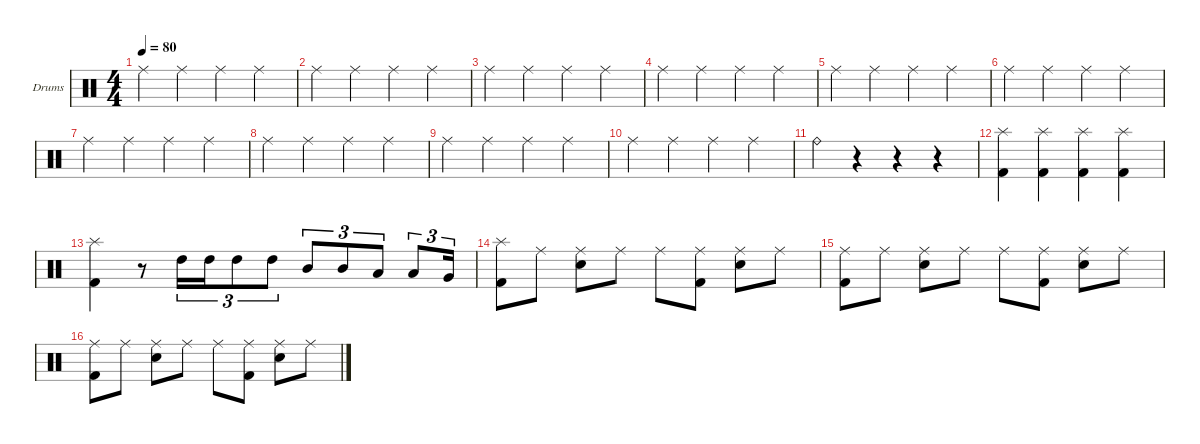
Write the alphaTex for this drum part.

\hideDynamics
\bracketExtendMode nobrackets
\firstSystemTrackNameOrientation horizontal
\otherSystemsTrackNameOrientation horizontal
\track ("Drumkit" "Drums") {instrument percussion}
\staff {score}
\articulation defaults
\ts (4 4)
\beaming (8 2 2 2 2)
\tempo 80
\clef neutral
\ks c "Ride (middle)".4{dy f} "Ride (middle)".4 "Ride (middle)".4 "Ride (middle)".4
|
"Ride (middle)".4 "Ride (middle)".4 "Ride (middle)".4 "Ride (middle)".4 |
"Ride (middle)".4 "Ride (middle)".4 "Ride (middle)".4 "Ride (middle)".4 |
"Ride (middle)".4 "Ride (middle)".4 "Ride (middle)".4 "Ride (middle)".4 |
"Ride (middle)".4 "Ride (middle)".4 "Ride (middle)".4 "Ride (middle)".4 |
"Ride (middle)".4 "Ride (middle)".4 "Ride (middle)".4 "Ride (middle)".4 |
"Ride (middle)".4 "Ride (middle)".4 "Ride (middle)".4 "Ride (middle)".4 |
"Ride (middle)".4 "Ride (middle)".4 "Ride (middle)".4 "Ride (middle)".4 |
"Ride (middle)".4 "Ride (middle)".4 "Ride (middle)".4 "Ride (middle)".4 |
"Ride (middle)".4 "Ride (middle)".4 "Ride (middle)".4 "Ride (middle)".4 |
"Ride (bell)".4 r.4 r.4 r.4 |
("Splash (hit)" "Kick (hit) 2").4 ("Splash (hit)" "Kick (hit) 2").4 ("Splash (hit)" "Kick (hit) 2").4 ("Splash (hit)" "Kick (hit) 2").4 |
("Splash (hit)" "Kick (hit) 2").4 r.8 "High Tom (hit)".16{tu (3 2)} "High Tom (hit)".16{tu (3 2)} "High Tom (hit)".8{tu (3 2)} "High Tom (hit)".8{tu (3 2)} "Mid Tom (hit)".8{tu (3 2)} "Mid Tom (hit)".8{tu (3 2)} "Low Tom (hit)".8{tu (3 2)} "Low Tom (hit)".8{tu (3 2)} "Very Low Tom (hit)".16{tu (3 2)} |
("Splash (hit)" "Kick (hit) 2").8 "Ride (middle)".8 ("Ride (middle)" "Snare (hit) 2").8 "Ride (middle)".8 "Ride (middle)".8 ("Ride (middle)" "Kick (hit) 2").8 ("Ride (middle)" "Snare (hit) 2").8 "Ride (middle)".8 |
("Ride (middle)" "Kick (hit) 2").8 "Ride (middle)".8 ("Ride (middle)" "Snare (hit) 2").8 "Ride (middle)".8 "Ride (middle)".8 ("Ride (middle)" "Kick (hit) 2").8 ("Ride (middle)" "Snare (hit) 2").8 "Ride (middle)".8 |
("Ride (middle)" "Kick (hit) 2").8 "Ride (middle)".8 ("Ride (middle)" "Snare (hit) 2").8 "Ride (middle)".8 "Ride (middle)".8 ("Ride (middle)" "Kick (hit) 2").8 ("Ride (middle)" "Snare (hit) 2").8 "Ride (middle)".8
